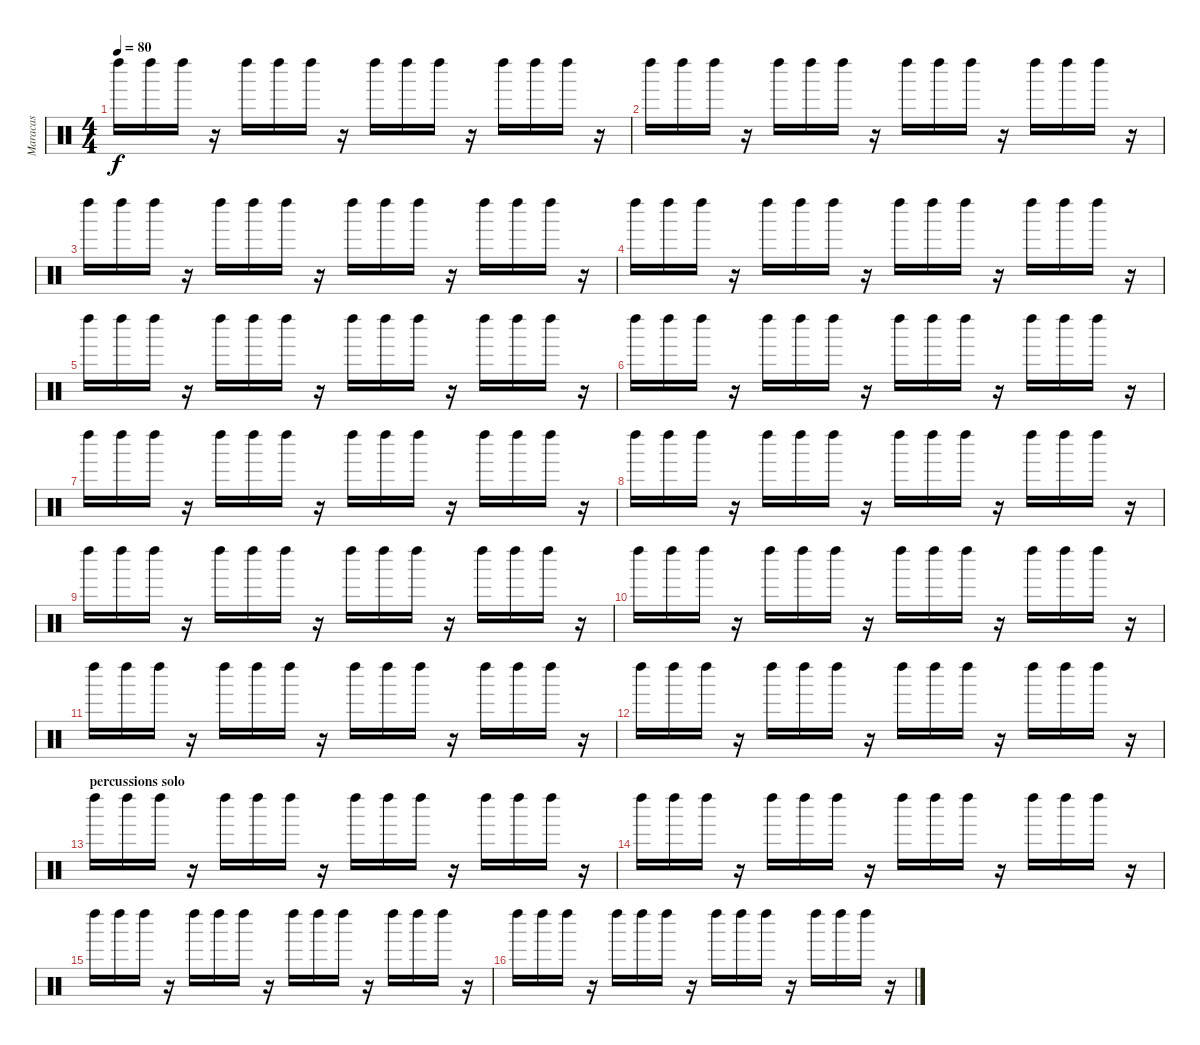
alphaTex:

\track ("Maracas" "Maracas") {instrument percussion}
\staff {score}
\articulation defaults
\ts (4 4)
\tempo 80
\clef neutral
\ks c "Left Maraca (hit)".16{dy f} "Left Maraca (hit)".16 "Left Maraca (hit)".16
r.16 "Left Maraca (hit)".16 "Left Maraca (hit)".16 "Left Maraca (hit)".16 r.16 "Left Maraca (hit)".16 "Left Maraca (hit)".16 "Left Maraca (hit)".16 r.16 "Left Maraca (hit)".16 "Left Maraca (hit)".16 "Left Maraca (hit)".16 r.16 |
"Left Maraca (hit)".16 "Left Maraca (hit)".16 "Left Maraca (hit)".16 r.16 "Left Maraca (hit)".16 "Left Maraca (hit)".16 "Left Maraca (hit)".16 r.16 "Left Maraca (hit)".16 "Left Maraca (hit)".16 "Left Maraca (hit)".16 r.16 "Left Maraca (hit)".16 "Left Maraca (hit)".16 "Left Maraca (hit)".16 r.16 |
"Left Maraca (hit)".16 "Left Maraca (hit)".16 "Left Maraca (hit)".16 r.16 "Left Maraca (hit)".16 "Left Maraca (hit)".16 "Left Maraca (hit)".16 r.16 "Left Maraca (hit)".16 "Left Maraca (hit)".16 "Left Maraca (hit)".16 r.16 "Left Maraca (hit)".16 "Left Maraca (hit)".16 "Left Maraca (hit)".16 r.16 |
"Left Maraca (hit)".16 "Left Maraca (hit)".16 "Left Maraca (hit)".16 r.16 "Left Maraca (hit)".16 "Left Maraca (hit)".16 "Left Maraca (hit)".16 r.16 "Left Maraca (hit)".16 "Left Maraca (hit)".16 "Left Maraca (hit)".16 r.16 "Left Maraca (hit)".16 "Left Maraca (hit)".16 "Left Maraca (hit)".16 r.16 |
"Left Maraca (hit)".16 "Left Maraca (hit)".16 "Left Maraca (hit)".16 r.16 "Left Maraca (hit)".16 "Left Maraca (hit)".16 "Left Maraca (hit)".16 r.16 "Left Maraca (hit)".16 "Left Maraca (hit)".16 "Left Maraca (hit)".16 r.16 "Left Maraca (hit)".16 "Left Maraca (hit)".16 "Left Maraca (hit)".16 r.16 |
"Left Maraca (hit)".16 "Left Maraca (hit)".16 "Left Maraca (hit)".16 r.16 "Left Maraca (hit)".16 "Left Maraca (hit)".16 "Left Maraca (hit)".16 r.16 "Left Maraca (hit)".16 "Left Maraca (hit)".16 "Left Maraca (hit)".16 r.16 "Left Maraca (hit)".16 "Left Maraca (hit)".16 "Left Maraca (hit)".16 r.16 |
"Left Maraca (hit)".16 "Left Maraca (hit)".16 "Left Maraca (hit)".16 r.16 "Left Maraca (hit)".16 "Left Maraca (hit)".16 "Left Maraca (hit)".16 r.16 "Left Maraca (hit)".16 "Left Maraca (hit)".16 "Left Maraca (hit)".16 r.16 "Left Maraca (hit)".16 "Left Maraca (hit)".16 "Left Maraca (hit)".16 r.16 |
"Left Maraca (hit)".16 "Left Maraca (hit)".16 "Left Maraca (hit)".16 r.16 "Left Maraca (hit)".16 "Left Maraca (hit)".16 "Left Maraca (hit)".16 r.16 "Left Maraca (hit)".16 "Left Maraca (hit)".16 "Left Maraca (hit)".16 r.16 "Left Maraca (hit)".16 "Left Maraca (hit)".16 "Left Maraca (hit)".16 r.16 |
"Left Maraca (hit)".16 "Left Maraca (hit)".16 "Left Maraca (hit)".16 r.16 "Left Maraca (hit)".16 "Left Maraca (hit)".16 "Left Maraca (hit)".16 r.16 "Left Maraca (hit)".16 "Left Maraca (hit)".16 "Left Maraca (hit)".16 r.16 "Left Maraca (hit)".16 "Left Maraca (hit)".16 "Left Maraca (hit)".16 r.16 |
"Left Maraca (hit)".16 "Left Maraca (hit)".16 "Left Maraca (hit)".16 r.16 "Left Maraca (hit)".16 "Left Maraca (hit)".16 "Left Maraca (hit)".16 r.16 "Left Maraca (hit)".16 "Left Maraca (hit)".16 "Left Maraca (hit)".16 r.16 "Left Maraca (hit)".16 "Left Maraca (hit)".16 "Left Maraca (hit)".16 r.16 |
"Left Maraca (hit)".16 "Left Maraca (hit)".16 "Left Maraca (hit)".16 r.16 "Left Maraca (hit)".16 "Left Maraca (hit)".16 "Left Maraca (hit)".16 r.16 "Left Maraca (hit)".16 "Left Maraca (hit)".16 "Left Maraca (hit)".16 r.16 "Left Maraca (hit)".16 "Left Maraca (hit)".16 "Left Maraca (hit)".16 r.16 |
"Left Maraca (hit)".16 "Left Maraca (hit)".16 "Left Maraca (hit)".16 r.16 "Left Maraca (hit)".16 "Left Maraca (hit)".16 "Left Maraca (hit)".16 r.16 "Left Maraca (hit)".16 "Left Maraca (hit)".16 "Left Maraca (hit)".16 r.16 "Left Maraca (hit)".16 "Left Maraca (hit)".16 "Left Maraca (hit)".16 r.16 |
\section ("" "percussions solo")
"Left Maraca (hit)".16 "Left Maraca (hit)".16 "Left Maraca (hit)".16 r.16 "Left Maraca (hit)".16 "Left Maraca (hit)".16 "Left Maraca (hit)".16 r.16 "Left Maraca (hit)".16 "Left Maraca (hit)".16 "Left Maraca (hit)".16 r.16 "Left Maraca (hit)".16 "Left Maraca (hit)".16 "Left Maraca (hit)".16 r.16 |
"Left Maraca (hit)".16 "Left Maraca (hit)".16 "Left Maraca (hit)".16 r.16 "Left Maraca (hit)".16 "Left Maraca (hit)".16 "Left Maraca (hit)".16 r.16 "Left Maraca (hit)".16 "Left Maraca (hit)".16 "Left Maraca (hit)".16 r.16 "Left Maraca (hit)".16 "Left Maraca (hit)".16 "Left Maraca (hit)".16 r.16 |
"Left Maraca (hit)".16 "Left Maraca (hit)".16 "Left Maraca (hit)".16 r.16 "Left Maraca (hit)".16 "Left Maraca (hit)".16 "Left Maraca (hit)".16 r.16 "Left Maraca (hit)".16 "Left Maraca (hit)".16 "Left Maraca (hit)".16 r.16 "Left Maraca (hit)".16 "Left Maraca (hit)".16 "Left Maraca (hit)".16 r.16 |
"Left Maraca (hit)".16 "Left Maraca (hit)".16 "Left Maraca (hit)".16 r.16 "Left Maraca (hit)".16 "Left Maraca (hit)".16 "Left Maraca (hit)".16 r.16 "Left Maraca (hit)".16 "Left Maraca (hit)".16 "Left Maraca (hit)".16 r.16 "Left Maraca (hit)".16 "Left Maraca (hit)".16 "Left Maraca (hit)".16 r.16
